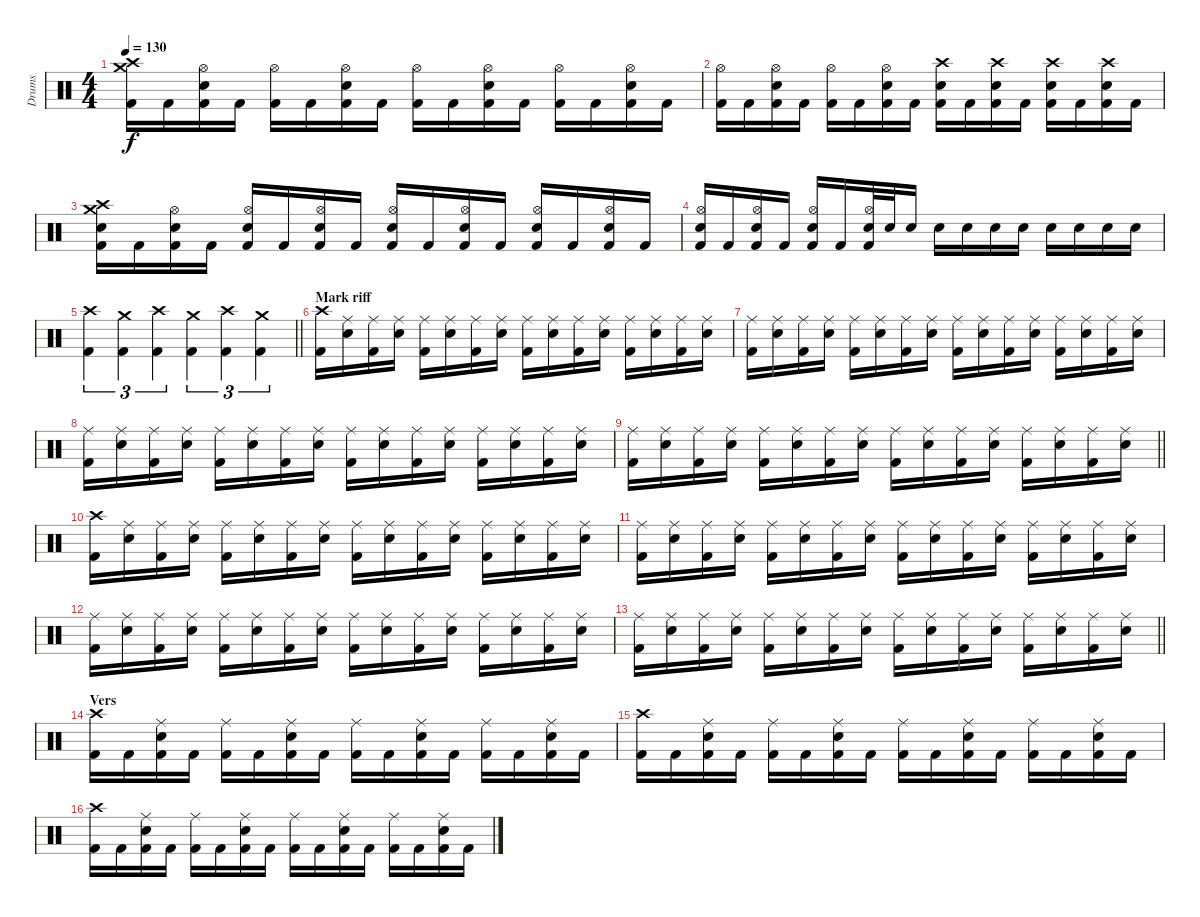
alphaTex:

\track ("Drums" "Drums") {instrument percussion}
\staff {score}
\articulation defaults
\ts (4 4)
\tempo 130
\clef neutral
\ks c
("Crash medium (hit)" "Crash high (hit)" "Kick (hit) 2").16{dy f} "Kick (hit) 2".16 ("Hi-Hat (open)" "Electric Snare (hit)" "Kick (hit) 2").16 "Kick (hit) 2".16 ("Hi-Hat (open)" "Kick (hit) 2").16 "Kick (hit) 2".16 ("Hi-Hat (open)" "Electric Snare (hit)" "Kick (hit) 2").16 "Kick (hit) 2".16 ("Hi-Hat (open)" "Kick (hit) 2").16 "Kick (hit) 2".16 ("Hi-Hat (open)" "Electric Snare (hit)" "Kick (hit) 2").16 "Kick (hit) 2".16 ("Hi-Hat (open)" "Kick (hit) 2").16 "Kick (hit) 2".16 ("Hi-Hat (open)" "Electric Snare (hit)" "Kick (hit) 2").16 "Kick (hit) 2".16 |
("Hi-Hat (open)" "Kick (hit) 2").16 "Kick (hit) 2".16 ("Hi-Hat (open)" "Electric Snare (hit)" "Kick (hit) 2").16 "Kick (hit) 2".16 ("Hi-Hat (open)" "Kick (hit) 2").16 "Kick (hit) 2".16 ("Hi-Hat (open)" "Electric Snare (hit)" "Kick (hit) 2").16 "Kick (hit) 2".16 ("Crash high (hit)" "Electric Snare (hit)" "Kick (hit) 2").16 "Kick (hit) 2".16 ("Crash high (hit)" "Electric Snare (hit)" "Kick (hit) 2").16 "Kick (hit) 2".16 ("Crash high (hit)" "Electric Snare (hit)" "Kick (hit) 2").16 "Kick (hit) 2".16 ("Crash high (hit)" "Electric Snare (hit)" "Kick (hit) 2").16 "Kick (hit) 2".16 |
("Crash medium (hit)" "Crash high (hit)" "Electric Snare (hit)" "Kick (hit) 2").16 "Kick (hit) 2".16 ("Hi-Hat (open)" "Electric Snare (hit)" "Kick (hit) 2").16 "Kick (hit) 2".16 ("Hi-Hat (open)" "Electric Snare (hit)" "Kick (hit) 2").16 "Kick (hit) 2".16 ("Hi-Hat (open)" "Electric Snare (hit)" "Kick (hit) 2").16 "Kick (hit) 2".16 ("Hi-Hat (open)" "Electric Snare (hit)" "Kick (hit) 2").16 "Kick (hit) 2".16 ("Hi-Hat (open)" "Electric Snare (hit)" "Kick (hit) 2").16 "Kick (hit) 2".16 ("Hi-Hat (open)" "Electric Snare (hit)" "Kick (hit) 2").16 "Kick (hit) 2".16 ("Hi-Hat (open)" "Electric Snare (hit)" "Kick (hit) 2").16 "Kick (hit) 2".16 |
("Hi-Hat (open)" "Electric Snare (hit)" "Kick (hit) 2").16 "Kick (hit) 2".16 ("Hi-Hat (open)" "Electric Snare (hit)" "Kick (hit) 2").16 "Kick (hit) 2".16 ("Hi-Hat (open)" "Electric Snare (hit)" "Kick (hit) 2").16 "Kick (hit) 2".16 ("Hi-Hat (open)" "Electric Snare (hit)" "Kick (hit) 2").32 "Electric Snare (hit)".32 "Electric Snare (hit)".16 "Electric Snare (hit)".16 "Electric Snare (hit)".16 "Electric Snare (hit)".16 "Electric Snare (hit)".16 "Electric Snare (hit)".16 "Electric Snare (hit)".16 "Electric Snare (hit)".16 "Electric Snare (hit)".16 |
\barLineRight lightlight
("Crash high (hit)" "Kick (hit) 2").4{tu (3 2)} ("Crash medium (hit)" "Kick (hit) 2").4{tu (3 2)} ("Crash high (hit)" "Kick (hit) 2").4{tu (3 2)} ("Crash medium (hit)" "Kick (hit) 2").4{tu (3 2)} ("Crash high (hit)" "Kick (hit) 2").4{tu (3 2)} ("Crash medium (hit)" "Kick (hit) 2").4{tu (3 2)} |
\section ("" "Mark riff")
("Crash high (hit)" "Kick (hit) 2").16 ("Ride (middle)" "Snare (hit) 2").16 ("Ride (middle)" "Kick (hit) 2").16 ("Ride (middle)" "Snare (hit) 2").16 ("Ride (middle)" "Kick (hit) 2").16 ("Ride (middle)" "Snare (hit) 2").16 ("Ride (middle)" "Kick (hit) 2").16 ("Ride (middle)" "Snare (hit) 2").16 ("Ride (middle)" "Kick (hit) 2").16 ("Ride (middle)" "Snare (hit) 2").16 ("Ride (middle)" "Kick (hit) 2").16 ("Ride (middle)" "Snare (hit) 2").16 ("Ride (middle)" "Kick (hit) 2").16 ("Ride (middle)" "Snare (hit) 2").16 ("Ride (middle)" "Kick (hit) 2").16 ("Ride (middle)" "Snare (hit) 2").16 |
("Ride (middle)" "Kick (hit) 2").16 ("Ride (middle)" "Snare (hit) 2").16 ("Ride (middle)" "Kick (hit) 2").16 ("Ride (middle)" "Snare (hit) 2").16 ("Ride (middle)" "Kick (hit) 2").16 ("Ride (middle)" "Snare (hit) 2").16 ("Ride (middle)" "Kick (hit) 2").16 ("Ride (middle)" "Snare (hit) 2").16 ("Ride (middle)" "Kick (hit) 2").16 ("Ride (middle)" "Snare (hit) 2").16 ("Ride (middle)" "Kick (hit) 2").16 ("Ride (middle)" "Snare (hit) 2").16 ("Ride (middle)" "Kick (hit) 2").16 ("Ride (middle)" "Snare (hit) 2").16 ("Ride (middle)" "Kick (hit) 2").16 ("Ride (middle)" "Snare (hit) 2").16 |
("Ride (middle)" "Kick (hit) 2").16 ("Ride (middle)" "Snare (hit) 2").16 ("Ride (middle)" "Kick (hit) 2").16 ("Ride (middle)" "Snare (hit) 2").16 ("Ride (middle)" "Kick (hit) 2").16 ("Ride (middle)" "Snare (hit) 2").16 ("Ride (middle)" "Kick (hit) 2").16 ("Ride (middle)" "Snare (hit) 2").16 ("Ride (middle)" "Kick (hit) 2").16 ("Ride (middle)" "Snare (hit) 2").16 ("Ride (middle)" "Kick (hit) 2").16 ("Ride (middle)" "Snare (hit) 2").16 ("Ride (middle)" "Kick (hit) 2").16 ("Ride (middle)" "Snare (hit) 2").16 ("Ride (middle)" "Kick (hit) 2").16 ("Ride (middle)" "Snare (hit) 2").16 |
\barLineRight lightlight
("Ride (middle)" "Kick (hit) 2").16 ("Ride (middle)" "Snare (hit) 2").16 ("Ride (middle)" "Kick (hit) 2").16 ("Ride (middle)" "Snare (hit) 2").16 ("Ride (middle)" "Kick (hit) 2").16 ("Ride (middle)" "Snare (hit) 2").16 ("Ride (middle)" "Kick (hit) 2").16 ("Ride (middle)" "Snare (hit) 2").16 ("Ride (middle)" "Kick (hit) 2").16 ("Ride (middle)" "Snare (hit) 2").16 ("Ride (middle)" "Kick (hit) 2").16 ("Ride (middle)" "Snare (hit) 2").16 ("Ride (middle)" "Kick (hit) 2").16 ("Ride (middle)" "Snare (hit) 2").16 ("Ride (middle)" "Kick (hit) 2").16 ("Ride (middle)" "Snare (hit) 2").16 |
("Crash high (hit)" "Kick (hit) 2").16 ("Ride (middle)" "Snare (hit) 2").16 ("Ride (middle)" "Kick (hit) 2").16 ("Ride (middle)" "Snare (hit) 2").16 ("Ride (middle)" "Kick (hit) 2").16 ("Ride (middle)" "Snare (hit) 2").16 ("Ride (middle)" "Kick (hit) 2").16 ("Ride (middle)" "Snare (hit) 2").16 ("Ride (middle)" "Kick (hit) 2").16 ("Ride (middle)" "Snare (hit) 2").16 ("Ride (middle)" "Kick (hit) 2").16 ("Ride (middle)" "Snare (hit) 2").16 ("Ride (middle)" "Kick (hit) 2").16 ("Ride (middle)" "Snare (hit) 2").16 ("Ride (middle)" "Kick (hit) 2").16 ("Ride (middle)" "Snare (hit) 2").16 |
("Ride (middle)" "Kick (hit) 2").16 ("Ride (middle)" "Snare (hit) 2").16 ("Ride (middle)" "Kick (hit) 2").16 ("Ride (middle)" "Snare (hit) 2").16 ("Ride (middle)" "Kick (hit) 2").16 ("Ride (middle)" "Snare (hit) 2").16 ("Ride (middle)" "Kick (hit) 2").16 ("Ride (middle)" "Snare (hit) 2").16 ("Ride (middle)" "Kick (hit) 2").16 ("Ride (middle)" "Snare (hit) 2").16 ("Ride (middle)" "Kick (hit) 2").16 ("Ride (middle)" "Snare (hit) 2").16 ("Ride (middle)" "Kick (hit) 2").16 ("Ride (middle)" "Snare (hit) 2").16 ("Ride (middle)" "Kick (hit) 2").16 ("Ride (middle)" "Snare (hit) 2").16 |
("Ride (middle)" "Kick (hit) 2").16 ("Ride (middle)" "Snare (hit) 2").16 ("Ride (middle)" "Kick (hit) 2").16 ("Ride (middle)" "Snare (hit) 2").16 ("Ride (middle)" "Kick (hit) 2").16 ("Ride (middle)" "Snare (hit) 2").16 ("Ride (middle)" "Kick (hit) 2").16 ("Ride (middle)" "Snare (hit) 2").16 ("Ride (middle)" "Kick (hit) 2").16 ("Ride (middle)" "Snare (hit) 2").16 ("Ride (middle)" "Kick (hit) 2").16 ("Ride (middle)" "Snare (hit) 2").16 ("Ride (middle)" "Kick (hit) 2").16 ("Ride (middle)" "Snare (hit) 2").16 ("Ride (middle)" "Kick (hit) 2").16 ("Ride (middle)" "Snare (hit) 2").16 |
\barLineRight lightlight
("Ride (middle)" "Kick (hit) 2").16 ("Ride (middle)" "Snare (hit) 2").16 ("Ride (middle)" "Kick (hit) 2").16 ("Ride (middle)" "Snare (hit) 2").16 ("Ride (middle)" "Kick (hit) 2").16 ("Ride (middle)" "Snare (hit) 2").16 ("Ride (middle)" "Kick (hit) 2").16 ("Ride (middle)" "Snare (hit) 2").16 ("Ride (middle)" "Kick (hit) 2").16 ("Ride (middle)" "Snare (hit) 2").16 ("Ride (middle)" "Kick (hit) 2").16 ("Ride (middle)" "Snare (hit) 2").16 ("Ride (middle)" "Kick (hit) 2").16 ("Ride (middle)" "Snare (hit) 2").16 ("Ride (middle)" "Kick (hit) 2").16 ("Ride (middle)" "Snare (hit) 2").16 |
\section ("" "Vers")
("Crash high (hit)" "Kick (hit) 2").16 "Kick (hit) 2".16 ("Ride (middle)" "Electric Snare (hit)" "Kick (hit) 2").16 "Kick (hit) 2".16 ("Ride (middle)" "Kick (hit) 2").16 "Kick (hit) 2".16 ("Ride (middle)" "Electric Snare (hit)" "Kick (hit) 2").16 "Kick (hit) 2".16 ("Ride (middle)" "Kick (hit) 2").16 "Kick (hit) 2".16 ("Ride (middle)" "Electric Snare (hit)" "Kick (hit) 2").16 "Kick (hit) 2".16 ("Ride (middle)" "Kick (hit) 2").16 "Kick (hit) 2".16 ("Ride (middle)" "Electric Snare (hit)" "Kick (hit) 2").16 "Kick (hit) 2".16 |
("Crash high (hit)" "Kick (hit) 2").16 "Kick (hit) 2".16 ("Ride (middle)" "Electric Snare (hit)" "Kick (hit) 2").16 "Kick (hit) 2".16 ("Ride (middle)" "Kick (hit) 2").16 "Kick (hit) 2".16 ("Ride (middle)" "Electric Snare (hit)" "Kick (hit) 2").16 "Kick (hit) 2".16 ("Ride (middle)" "Kick (hit) 2").16 "Kick (hit) 2".16 ("Ride (middle)" "Electric Snare (hit)" "Kick (hit) 2").16 "Kick (hit) 2".16 ("Ride (middle)" "Kick (hit) 2").16 "Kick (hit) 2".16 ("Ride (middle)" "Electric Snare (hit)" "Kick (hit) 2").16 "Kick (hit) 2".16 |
("Crash high (hit)" "Kick (hit) 2").16 "Kick (hit) 2".16 ("Ride (middle)" "Electric Snare (hit)" "Kick (hit) 2").16 "Kick (hit) 2".16 ("Ride (middle)" "Kick (hit) 2").16 "Kick (hit) 2".16 ("Ride (middle)" "Electric Snare (hit)" "Kick (hit) 2").16 "Kick (hit) 2".16 ("Ride (middle)" "Kick (hit) 2").16 "Kick (hit) 2".16 ("Ride (middle)" "Electric Snare (hit)" "Kick (hit) 2").16 "Kick (hit) 2".16 ("Ride (middle)" "Kick (hit) 2").16 "Kick (hit) 2".16 ("Ride (middle)" "Electric Snare (hit)" "Kick (hit) 2").16 "Kick (hit) 2".16
